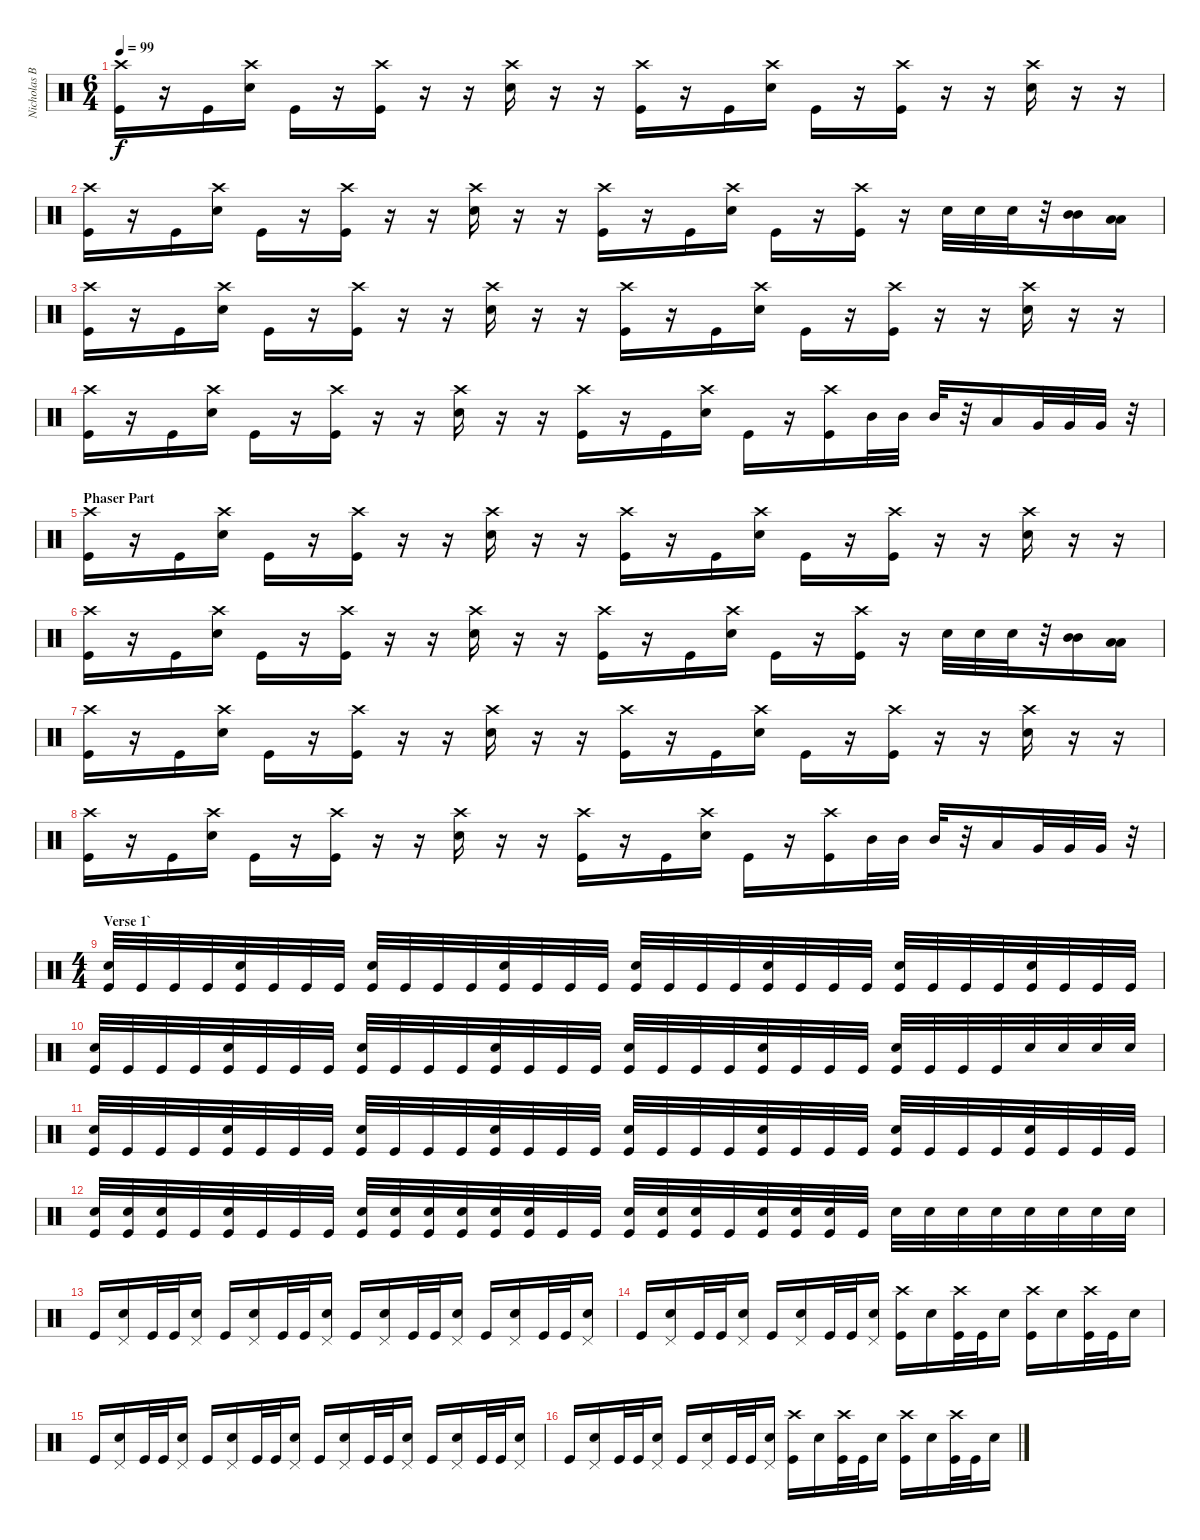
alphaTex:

\track ("Nicholas Barker" "Nicholas B") {instrument percussion}
\staff {score}
\articulation defaults
\ts (6 4)
\section ("" "")
\tempo 99
\clef neutral
\ks c
("Crash high (hit)" "Kick (hit)").16{dy f} r.16 "Kick (hit)".16 ("Crash high (hit)" "Snare (hit) 2").16 "Kick (hit)".16 r.16 ("Crash high (hit)" "Kick (hit)").16 r.16 r.16 ("Crash high (hit)" "Snare (hit) 2").16 r.16 r.16 ("Crash high (hit)" "Kick (hit)").16 r.16 "Kick (hit)".16 ("Crash high (hit)" "Snare (hit) 2").16 "Kick (hit)".16 r.16 ("Crash high (hit)" "Kick (hit)").16 r.16 r.16 ("Crash high (hit)" "Snare (hit) 2").16 r.16 r.16 |
("Crash high (hit)" "Kick (hit)").16 r.16 "Kick (hit)".16 ("Crash high (hit)" "Snare (hit) 2").16 "Kick (hit)".16 r.16 ("Crash high (hit)" "Kick (hit)").16 r.16 r.16 ("Crash high (hit)" "Snare (hit) 2").16 r.16 r.16 ("Crash high (hit)" "Kick (hit)").16 r.16 "Kick (hit)".16 ("Crash high (hit)" "Snare (hit) 2").16 "Kick (hit)".16 r.16 ("Crash high (hit)" "Kick (hit)").16 r.16 "Snare (hit) 2".32 "Snare (hit) 2".32 "Snare (hit) 2".32 r.32 ("Mid Tom (hit)" "Mid Tom (hit)").16 ("Low Floor Tom (hit)" "Low Floor Tom (hit)").16 |
("Crash high (hit)" "Kick (hit)").16 r.16 "Kick (hit)".16 ("Crash high (hit)" "Snare (hit) 2").16 "Kick (hit)".16 r.16 ("Crash high (hit)" "Kick (hit)").16 r.16 r.16 ("Crash high (hit)" "Snare (hit) 2").16 r.16 r.16 ("Crash high (hit)" "Kick (hit)").16 r.16 "Kick (hit)".16 ("Crash high (hit)" "Snare (hit) 2").16 "Kick (hit)".16 r.16 ("Crash high (hit)" "Kick (hit)").16 r.16 r.16 ("Crash high (hit)" "Snare (hit) 2").16 r.16 r.16 |
("Crash high (hit)" "Kick (hit)").16 r.16 "Kick (hit)".16 ("Crash high (hit)" "Snare (hit) 2").16 "Kick (hit)".16 r.16 ("Crash high (hit)" "Kick (hit)").16 r.16 r.16 ("Crash high (hit)" "Snare (hit) 2").16 r.16 r.16 ("Crash high (hit)" "Kick (hit)").16 r.16 "Kick (hit)".16 ("Crash high (hit)" "Snare (hit) 2").16 "Kick (hit)".16 r.16 ("Crash high (hit)" "Kick (hit)").16 "Mid Tom (hit)".32 "Mid Tom (hit)".32 "Mid Tom (hit)".32 r.32 "Low Floor Tom (hit)".16 "Very Low Tom (hit)".32 "Very Low Tom (hit)".32 "Very Low Tom (hit)".32 r.32 |
\section ("" "Phaser Part")
("Crash high (hit)" "Kick (hit)").16 r.16 "Kick (hit)".16 ("Crash high (hit)" "Snare (hit) 2").16 "Kick (hit)".16 r.16 ("Crash high (hit)" "Kick (hit)").16 r.16 r.16 ("Crash high (hit)" "Snare (hit) 2").16 r.16 r.16 ("Crash high (hit)" "Kick (hit)").16 r.16 "Kick (hit)".16 ("Crash high (hit)" "Snare (hit) 2").16 "Kick (hit)".16 r.16 ("Crash high (hit)" "Kick (hit)").16 r.16 r.16 ("Crash high (hit)" "Snare (hit) 2").16 r.16 r.16 |
("Crash high (hit)" "Kick (hit)").16 r.16 "Kick (hit)".16 ("Crash high (hit)" "Snare (hit) 2").16 "Kick (hit)".16 r.16 ("Crash high (hit)" "Kick (hit)").16 r.16 r.16 ("Crash high (hit)" "Snare (hit) 2").16 r.16 r.16 ("Crash high (hit)" "Kick (hit)").16 r.16 "Kick (hit)".16 ("Crash high (hit)" "Snare (hit) 2").16 "Kick (hit)".16 r.16 ("Crash high (hit)" "Kick (hit)").16 r.16 "Snare (hit) 2".32 "Snare (hit) 2".32 "Snare (hit) 2".32 r.32 ("Mid Tom (hit)" "Mid Tom (hit)").16 ("Low Floor Tom (hit)" "Low Floor Tom (hit)").16 |
("Crash high (hit)" "Kick (hit)").16 r.16 "Kick (hit)".16 ("Crash high (hit)" "Snare (hit) 2").16 "Kick (hit)".16 r.16 ("Crash high (hit)" "Kick (hit)").16 r.16 r.16 ("Crash high (hit)" "Snare (hit) 2").16 r.16 r.16 ("Crash high (hit)" "Kick (hit)").16 r.16 "Kick (hit)".16 ("Crash high (hit)" "Snare (hit) 2").16 "Kick (hit)".16 r.16 ("Crash high (hit)" "Kick (hit)").16 r.16 r.16 ("Crash high (hit)" "Snare (hit) 2").16 r.16 r.16 |
("Crash high (hit)" "Kick (hit)").16 r.16 "Kick (hit)".16 ("Crash high (hit)" "Snare (hit) 2").16 "Kick (hit)".16 r.16 ("Crash high (hit)" "Kick (hit)").16 r.16 r.16 ("Crash high (hit)" "Snare (hit) 2").16 r.16 r.16 ("Crash high (hit)" "Kick (hit)").16 r.16 "Kick (hit)".16 ("Crash high (hit)" "Snare (hit) 2").16 "Kick (hit)".16 r.16 ("Crash high (hit)" "Kick (hit)").16 "Mid Tom (hit)".32 "Mid Tom (hit)".32 "Mid Tom (hit)".32 r.32 "Low Floor Tom (hit)".16 "Very Low Tom (hit)".32 "Very Low Tom (hit)".32 "Very Low Tom (hit)".32 r.32 |
\ts (4 4)
\section ("" "Verse 1`")
("Snare (hit) 2" "Kick (hit)").32 "Kick (hit)".32 "Kick (hit)".32 "Kick (hit)".32 ("Snare (hit) 2" "Kick (hit)").32 "Kick (hit)".32 "Kick (hit)".32 "Kick (hit)".32 ("Snare (hit) 2" "Kick (hit)").32 "Kick (hit)".32 "Kick (hit)".32 "Kick (hit)".32 ("Snare (hit) 2" "Kick (hit)").32 "Kick (hit)".32 "Kick (hit)".32 "Kick (hit)".32 ("Snare (hit) 2" "Kick (hit)").32 "Kick (hit)".32 "Kick (hit)".32 "Kick (hit)".32 ("Snare (hit) 2" "Kick (hit)").32 "Kick (hit)".32 "Kick (hit)".32 "Kick (hit)".32 ("Snare (hit) 2" "Kick (hit)").32 "Kick (hit)".32 "Kick (hit)".32 "Kick (hit)".32 ("Snare (hit) 2" "Kick (hit)").32 "Kick (hit)".32 "Kick (hit)".32 "Kick (hit)".32 |
("Snare (hit) 2" "Kick (hit)").32 "Kick (hit)".32 "Kick (hit)".32 "Kick (hit)".32 ("Snare (hit) 2" "Kick (hit)").32 "Kick (hit)".32 "Kick (hit)".32 "Kick (hit)".32 ("Snare (hit) 2" "Kick (hit)").32 "Kick (hit)".32 "Kick (hit)".32 "Kick (hit)".32 ("Snare (hit) 2" "Kick (hit)").32 "Kick (hit)".32 "Kick (hit)".32 "Kick (hit)".32 ("Snare (hit) 2" "Kick (hit)").32 "Kick (hit)".32 "Kick (hit)".32 "Kick (hit)".32 ("Snare (hit) 2" "Kick (hit)").32 "Kick (hit)".32 "Kick (hit)".32 "Kick (hit)".32 ("Snare (hit) 2" "Kick (hit)").32 "Kick (hit)".32 "Kick (hit)".32 "Kick (hit)".32 "Snare (hit) 2".32 "Snare (hit) 2".32 "Snare (hit) 2".32 "Snare (hit) 2".32 |
("Snare (hit) 2" "Kick (hit)").32 "Kick (hit)".32 "Kick (hit)".32 "Kick (hit)".32 ("Snare (hit) 2" "Kick (hit)").32 "Kick (hit)".32 "Kick (hit)".32 "Kick (hit)".32 ("Snare (hit) 2" "Kick (hit)").32 "Kick (hit)".32 "Kick (hit)".32 "Kick (hit)".32 ("Snare (hit) 2" "Kick (hit)").32 "Kick (hit)".32 "Kick (hit)".32 "Kick (hit)".32 ("Snare (hit) 2" "Kick (hit)").32 "Kick (hit)".32 "Kick (hit)".32 "Kick (hit)".32 ("Snare (hit) 2" "Kick (hit)").32 "Kick (hit)".32 "Kick (hit)".32 "Kick (hit)".32 ("Snare (hit) 2" "Kick (hit)").32 "Kick (hit)".32 "Kick (hit)".32 "Kick (hit)".32 ("Snare (hit) 2" "Kick (hit)").32 "Kick (hit)".32 "Kick (hit)".32 "Kick (hit)".32 |
("Snare (hit) 2" "Kick (hit)").32 ("Snare (hit) 2" "Kick (hit)").32 ("Snare (hit) 2" "Kick (hit)").32 "Kick (hit)".32 ("Snare (hit) 2" "Kick (hit)").32 "Kick (hit)".32 "Kick (hit)".32 "Kick (hit)".32 ("Snare (hit) 2" "Kick (hit)").32 ("Snare (hit) 2" "Kick (hit)").32 ("Snare (hit) 2" "Kick (hit)").32 ("Snare (hit) 2" "Kick (hit)").32 ("Snare (hit) 2" "Kick (hit)").32 ("Snare (hit) 2" "Kick (hit)").32 "Kick (hit)".32 "Kick (hit)".32 ("Snare (hit) 2" "Kick (hit)").32 ("Snare (hit) 2" "Kick (hit)").32 ("Snare (hit) 2" "Kick (hit)").32 "Kick (hit)".32 ("Snare (hit) 2" "Kick (hit)").32 ("Snare (hit) 2" "Kick (hit)").32 ("Snare (hit) 2" "Kick (hit)").32 "Kick (hit)".32 "Snare (hit) 2".32 "Snare (hit) 2".32 "Snare (hit) 2".32 "Snare (hit) 2".32 "Snare (hit) 2".32 "Snare (hit) 2".32 "Snare (hit) 2".32 "Snare (hit) 2".32 |
"Kick (hit)".16 ("Pedal Hi-Hat (hit)" "Snare (hit) 2").16 "Kick (hit)".32 "Kick (hit)".32 ("Pedal Hi-Hat (hit)" "Snare (hit) 2").16 "Kick (hit)".16 ("Pedal Hi-Hat (hit)" "Snare (hit) 2").16 "Kick (hit)".32 "Kick (hit)".32 ("Pedal Hi-Hat (hit)" "Snare (hit) 2").16 "Kick (hit)".16 ("Pedal Hi-Hat (hit)" "Snare (hit) 2").16 "Kick (hit)".32 "Kick (hit)".32 ("Pedal Hi-Hat (hit)" "Snare (hit) 2").16 "Kick (hit)".16 ("Pedal Hi-Hat (hit)" "Snare (hit) 2").16 "Kick (hit)".32 "Kick (hit)".32 ("Pedal Hi-Hat (hit)" "Snare (hit) 2").16 |
"Kick (hit)".16 ("Pedal Hi-Hat (hit)" "Snare (hit) 2").16 "Kick (hit)".32 "Kick (hit)".32 ("Pedal Hi-Hat (hit)" "Snare (hit) 2").16 "Kick (hit)".16 ("Pedal Hi-Hat (hit)" "Snare (hit) 2").16 "Kick (hit)".32 "Kick (hit)".32 ("Pedal Hi-Hat (hit)" "Snare (hit) 2").16 ("Crash high (hit)" "Kick (hit)").16 "Snare (hit) 2".16 ("Crash high (hit)" "Kick (hit)").32 "Kick (hit)".32 "Snare (hit) 2".16 ("Crash high (hit)" "Kick (hit)").16 "Snare (hit) 2".16 ("Crash high (hit)" "Kick (hit)").32 "Kick (hit)".32 "Snare (hit) 2".16 |
"Kick (hit)".16 ("Pedal Hi-Hat (hit)" "Snare (hit) 2").16 "Kick (hit)".32 "Kick (hit)".32 ("Pedal Hi-Hat (hit)" "Snare (hit) 2").16 "Kick (hit)".16 ("Pedal Hi-Hat (hit)" "Snare (hit) 2").16 "Kick (hit)".32 "Kick (hit)".32 ("Pedal Hi-Hat (hit)" "Snare (hit) 2").16 "Kick (hit)".16 ("Pedal Hi-Hat (hit)" "Snare (hit) 2").16 "Kick (hit)".32 "Kick (hit)".32 ("Pedal Hi-Hat (hit)" "Snare (hit) 2").16 "Kick (hit)".16 ("Pedal Hi-Hat (hit)" "Snare (hit) 2").16 "Kick (hit)".32 "Kick (hit)".32 ("Pedal Hi-Hat (hit)" "Snare (hit) 2").16 |
"Kick (hit)".16 ("Pedal Hi-Hat (hit)" "Snare (hit) 2").16 "Kick (hit)".32 "Kick (hit)".32 ("Pedal Hi-Hat (hit)" "Snare (hit) 2").16 "Kick (hit)".16 ("Pedal Hi-Hat (hit)" "Snare (hit) 2").16 "Kick (hit)".32 "Kick (hit)".32 ("Pedal Hi-Hat (hit)" "Snare (hit) 2").16 ("Crash high (hit)" "Kick (hit)").16 "Snare (hit) 2".16 ("Crash high (hit)" "Kick (hit)").32 "Kick (hit)".32 "Snare (hit) 2".16 ("Crash high (hit)" "Kick (hit)").16 "Snare (hit) 2".16 ("Crash high (hit)" "Kick (hit)").32 "Kick (hit)".32 "Snare (hit) 2".16
